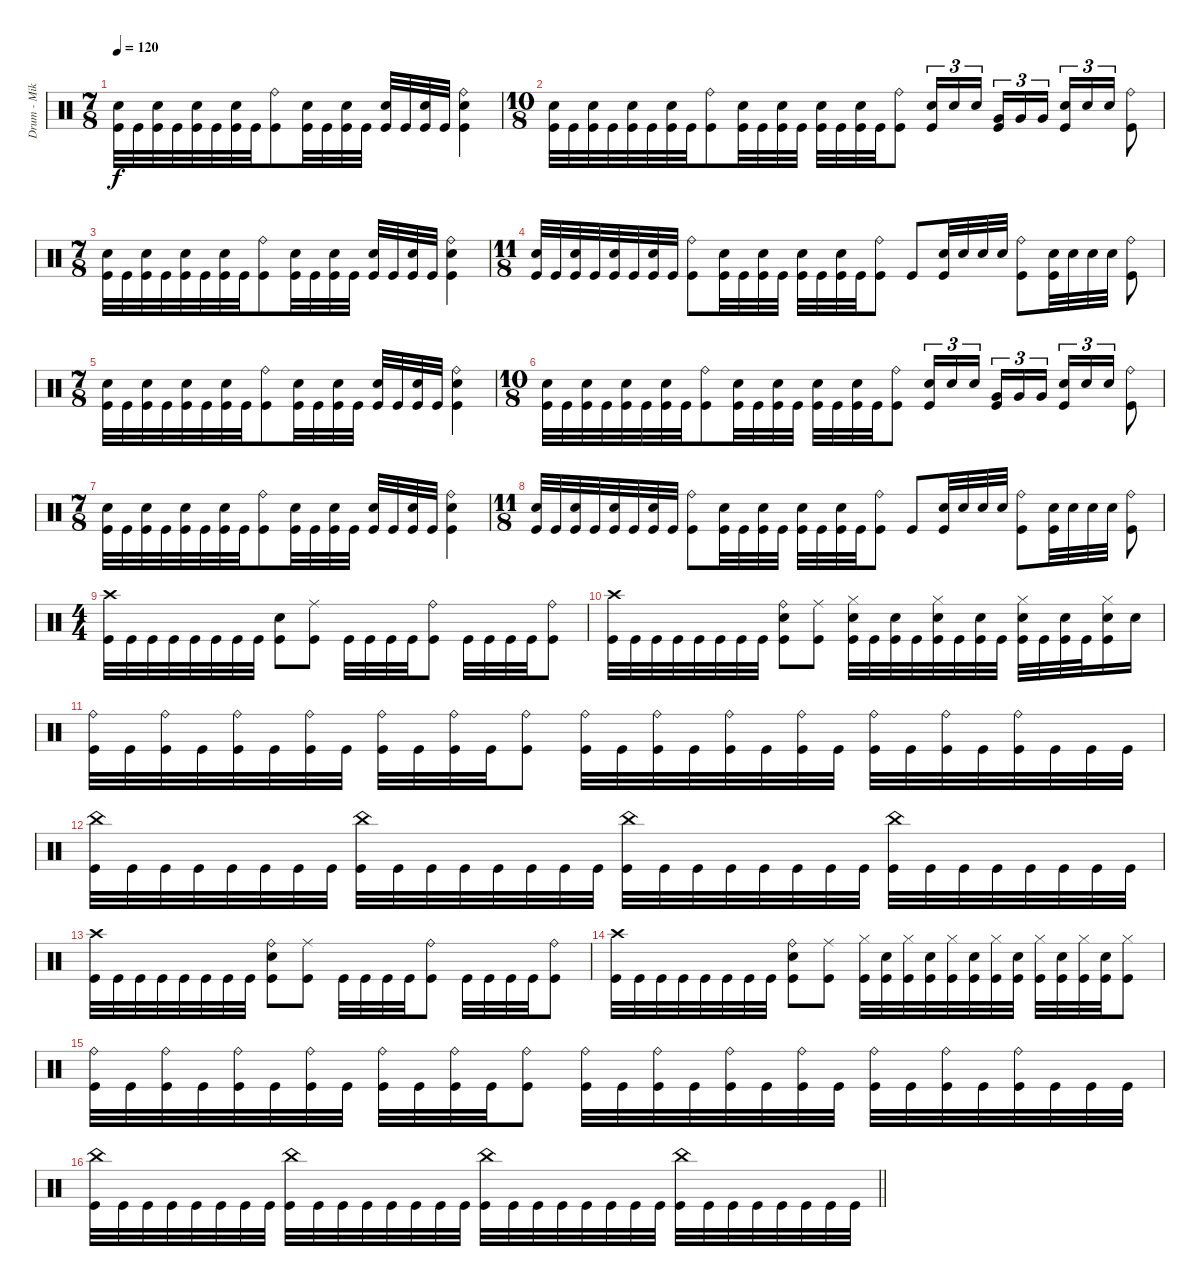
\track ("Drum - Mike Collins" "Drum - Mik") {instrument percussion}
\staff {score}
\articulation defaults
\ts (7 8)
\tempo 120
\clef neutral
\ks c
("Electric Snare (hit)" "Kick (hit)").32{dy f} "Kick (hit)".32 ("Electric Snare (hit)" "Kick (hit)").32 "Kick (hit)".32 ("Electric Snare (hit)" "Kick (hit)").32 "Kick (hit)".32 ("Electric Snare (hit)" "Kick (hit)").32 "Kick (hit)".32 ("Ride (bell)" "Kick (hit)").8 ("Electric Snare (hit)" "Kick (hit)").32 "Kick (hit)".32 ("Electric Snare (hit)" "Kick (hit)").32 "Kick (hit)".32 ("Electric Snare (hit)" "Kick (hit)").32 "Kick (hit)".32 ("Electric Snare (hit)" "Kick (hit)").32 "Kick (hit)".32 ("Ride (bell)" "Electric Snare (hit)" "Kick (hit)").4 |
\ts (10 8)
("Electric Snare (hit)" "Kick (hit)").32 "Kick (hit)".32 ("Electric Snare (hit)" "Kick (hit)").32 "Kick (hit)".32 ("Electric Snare (hit)" "Kick (hit)").32 "Kick (hit)".32 ("Electric Snare (hit)" "Kick (hit)").32 "Kick (hit)".32 ("Ride (bell)" "Kick (hit)").8 ("Electric Snare (hit)" "Kick (hit)").32 "Kick (hit)".32 ("Electric Snare (hit)" "Kick (hit)").32 "Kick (hit)".32 ("Electric Snare (hit)" "Kick (hit)").32 "Kick (hit)".32 ("Electric Snare (hit)" "Kick (hit)").32 "Kick (hit)".32 ("Ride (bell)" "Kick (hit)").8 ("Electric Snare (hit)" "Kick (hit)").16{tu (3 2)} "Electric Snare (hit)".16{tu (3 2)} "Electric Snare (hit)".16{tu (3 2)} ("Very Low Tom (hit)" "Kick (hit)").16{tu (3 2)} "Very Low Tom (hit)".16{tu (3 2)} "Very Low Tom (hit)".16{tu (3 2)} ("Electric Snare (hit)" "Kick (hit)").16{tu (3 2)} "Electric Snare (hit)".16{tu (3 2)} "Electric Snare (hit)".16{tu (3 2)} ("Ride (bell)" "Kick (hit)").8 |
\ts (7 8)
("Electric Snare (hit)" "Kick (hit)").32 "Kick (hit)".32 ("Electric Snare (hit)" "Kick (hit)").32 "Kick (hit)".32 ("Electric Snare (hit)" "Kick (hit)").32 "Kick (hit)".32 ("Electric Snare (hit)" "Kick (hit)").32 "Kick (hit)".32 ("Ride (bell)" "Kick (hit)").8 ("Electric Snare (hit)" "Kick (hit)").32 "Kick (hit)".32 ("Electric Snare (hit)" "Kick (hit)").32 "Kick (hit)".32 ("Electric Snare (hit)" "Kick (hit)").32 "Kick (hit)".32 ("Electric Snare (hit)" "Kick (hit)").32 "Kick (hit)".32 ("Ride (bell)" "Electric Snare (hit)" "Kick (hit)").4 |
\ts (11 8)
("Electric Snare (hit)" "Kick (hit)").32 "Kick (hit)".32 ("Electric Snare (hit)" "Kick (hit)").32 "Kick (hit)".32 ("Electric Snare (hit)" "Kick (hit)").32 "Kick (hit)".32 ("Electric Snare (hit)" "Kick (hit)").32 "Kick (hit)".32 ("Ride (bell)" "Kick (hit)").8 ("Electric Snare (hit)" "Kick (hit)").32 "Kick (hit)".32 ("Electric Snare (hit)" "Kick (hit)").32 "Kick (hit)".32 ("Electric Snare (hit)" "Kick (hit)").32 "Kick (hit)".32 ("Electric Snare (hit)" "Kick (hit)").32 "Kick (hit)".32 ("Ride (bell)" "Kick (hit)").8 "Kick (hit)".8 ("Electric Snare (hit)" "Kick (hit)").32 "Electric Snare (hit)".32 "Electric Snare (hit)".32 "Electric Snare (hit)".32 ("Ride (bell)" "Kick (hit)").8 ("Electric Snare (hit)" "Kick (hit)").32 "Electric Snare (hit)".32 "Electric Snare (hit)".32 "Electric Snare (hit)".32 ("Ride (bell)" "Kick (hit)").8 |
\ts (7 8)
("Electric Snare (hit)" "Kick (hit)").32 "Kick (hit)".32 ("Electric Snare (hit)" "Kick (hit)").32 "Kick (hit)".32 ("Electric Snare (hit)" "Kick (hit)").32 "Kick (hit)".32 ("Electric Snare (hit)" "Kick (hit)").32 "Kick (hit)".32 ("Ride (bell)" "Kick (hit)").8 ("Electric Snare (hit)" "Kick (hit)").32 "Kick (hit)".32 ("Electric Snare (hit)" "Kick (hit)").32 "Kick (hit)".32 ("Electric Snare (hit)" "Kick (hit)").32 "Kick (hit)".32 ("Electric Snare (hit)" "Kick (hit)").32 "Kick (hit)".32 ("Ride (bell)" "Electric Snare (hit)" "Kick (hit)").4 |
\ts (10 8)
("Electric Snare (hit)" "Kick (hit)").32 "Kick (hit)".32 ("Electric Snare (hit)" "Kick (hit)").32 "Kick (hit)".32 ("Electric Snare (hit)" "Kick (hit)").32 "Kick (hit)".32 ("Electric Snare (hit)" "Kick (hit)").32 "Kick (hit)".32 ("Ride (bell)" "Kick (hit)").8 ("Electric Snare (hit)" "Kick (hit)").32 "Kick (hit)".32 ("Electric Snare (hit)" "Kick (hit)").32 "Kick (hit)".32 ("Electric Snare (hit)" "Kick (hit)").32 "Kick (hit)".32 ("Electric Snare (hit)" "Kick (hit)").32 "Kick (hit)".32 ("Ride (bell)" "Kick (hit)").8 ("Electric Snare (hit)" "Kick (hit)").16{tu (3 2)} "Electric Snare (hit)".16{tu (3 2)} "Electric Snare (hit)".16{tu (3 2)} ("Very Low Tom (hit)" "Kick (hit)").16{tu (3 2)} "Very Low Tom (hit)".16{tu (3 2)} "Very Low Tom (hit)".16{tu (3 2)} ("Electric Snare (hit)" "Kick (hit)").16{tu (3 2)} "Electric Snare (hit)".16{tu (3 2)} "Electric Snare (hit)".16{tu (3 2)} ("Ride (bell)" "Kick (hit)").8 |
\ts (7 8)
("Electric Snare (hit)" "Kick (hit)").32 "Kick (hit)".32 ("Electric Snare (hit)" "Kick (hit)").32 "Kick (hit)".32 ("Electric Snare (hit)" "Kick (hit)").32 "Kick (hit)".32 ("Electric Snare (hit)" "Kick (hit)").32 "Kick (hit)".32 ("Ride (bell)" "Kick (hit)").8 ("Electric Snare (hit)" "Kick (hit)").32 "Kick (hit)".32 ("Electric Snare (hit)" "Kick (hit)").32 "Kick (hit)".32 ("Electric Snare (hit)" "Kick (hit)").32 "Kick (hit)".32 ("Electric Snare (hit)" "Kick (hit)").32 "Kick (hit)".32 ("Ride (bell)" "Electric Snare (hit)" "Kick (hit)").4 |
\ts (11 8)
("Electric Snare (hit)" "Kick (hit)").32 "Kick (hit)".32 ("Electric Snare (hit)" "Kick (hit)").32 "Kick (hit)".32 ("Electric Snare (hit)" "Kick (hit)").32 "Kick (hit)".32 ("Electric Snare (hit)" "Kick (hit)").32 "Kick (hit)".32 ("Ride (bell)" "Kick (hit)").8 ("Electric Snare (hit)" "Kick (hit)").32 "Kick (hit)".32 ("Electric Snare (hit)" "Kick (hit)").32 "Kick (hit)".32 ("Electric Snare (hit)" "Kick (hit)").32 "Kick (hit)".32 ("Electric Snare (hit)" "Kick (hit)").32 "Kick (hit)".32 ("Ride (bell)" "Kick (hit)").8 "Kick (hit)".8 ("Electric Snare (hit)" "Kick (hit)").32 "Electric Snare (hit)".32 "Electric Snare (hit)".32 "Electric Snare (hit)".32 ("Ride (bell)" "Kick (hit)").8 ("Electric Snare (hit)" "Kick (hit)").32 "Electric Snare (hit)".32 "Electric Snare (hit)".32 "Electric Snare (hit)".32 ("Ride (bell)" "Kick (hit)").8 |
\ts (4 4)
("Crash high (hit)" "Kick (hit)").32 "Kick (hit)".32 "Kick (hit)".32 "Kick (hit)".32 "Kick (hit)".32 "Kick (hit)".32 "Kick (hit)".32 "Kick (hit)".32 ("Electric Snare (hit)" "Kick (hit)").8 ("Ride (middle)" "Kick (hit)").8 "Kick (hit)".32 "Kick (hit)".32 "Kick (hit)".32 "Kick (hit)".32 ("Ride (bell)" "Kick (hit)").8 "Kick (hit)".32 "Kick (hit)".32 "Kick (hit)".32 "Kick (hit)".32 ("Ride (bell)" "Kick (hit)").8 |
("Crash high (hit)" "Kick (hit)").32 "Kick (hit)".32 "Kick (hit)".32 "Kick (hit)".32 "Kick (hit)".32 "Kick (hit)".32 "Kick (hit)".32 "Kick (hit)".32 ("Ride (bell)" "Electric Snare (hit)" "Kick (hit)").8 ("Ride (middle)" "Kick (hit)").8 ("Hi-Hat (closed)" "Electric Snare (hit)" "Kick (hit)").32 "Kick (hit)".32 ("Electric Snare (hit)" "Kick (hit)").32 "Kick (hit)".32 ("Hi-Hat (closed)" "Electric Snare (hit)" "Kick (hit)").32 "Kick (hit)".32 ("Electric Snare (hit)" "Kick (hit)").32 "Kick (hit)".32 ("Hi-Hat (closed)" "Electric Snare (hit)" "Kick (hit)").32 "Kick (hit)".32 ("Electric Snare (hit)" "Kick (hit)").32 "Kick (hit)".32 ("Hi-Hat (closed)" "Electric Snare (hit)" "Kick (hit)").16 "Electric Snare (hit)".16 |
("Ride (bell)" "Kick (hit)").32 "Kick (hit)".32 ("Ride (bell)" "Kick (hit)").32 "Kick (hit)".32 ("Ride (bell)" "Kick (hit)").32 "Kick (hit)".32 ("Ride (bell)" "Kick (hit)").32 "Kick (hit)".32 ("Ride (bell)" "Kick (hit)").32 "Kick (hit)".32 ("Ride (bell)" "Kick (hit)").32 "Kick (hit)".32 ("Ride (bell)" "Kick (hit)").8 ("Ride (bell)" "Kick (hit)").32 "Kick (hit)".32 ("Ride (bell)" "Kick (hit)").32 "Kick (hit)".32 ("Ride (bell)" "Kick (hit)").32 "Kick (hit)".32 ("Ride (bell)" "Kick (hit)").32 "Kick (hit)".32 ("Ride (bell)" "Kick (hit)").32 "Kick (hit)".32 ("Ride (bell)" "Kick (hit)").32 "Kick (hit)".32 ("Ride (bell)" "Kick (hit)").32 "Kick (hit)".32 "Kick (hit)".32 "Kick (hit)".32 |
("China (hit)" "Kick (hit)").32 "Kick (hit)".32 "Kick (hit)".32 "Kick (hit)".32 "Kick (hit)".32 "Kick (hit)".32 "Kick (hit)".32 "Kick (hit)".32 ("China (hit)" "Kick (hit)").32 "Kick (hit)".32 "Kick (hit)".32 "Kick (hit)".32 "Kick (hit)".32 "Kick (hit)".32 "Kick (hit)".32 "Kick (hit)".32 ("China (hit)" "Kick (hit)").32 "Kick (hit)".32 "Kick (hit)".32 "Kick (hit)".32 "Kick (hit)".32 "Kick (hit)".32 "Kick (hit)".32 "Kick (hit)".32 ("China (hit)" "Kick (hit)").32 "Kick (hit)".32 "Kick (hit)".32 "Kick (hit)".32 "Kick (hit)".32 "Kick (hit)".32 "Kick (hit)".32 "Kick (hit)".32 |
("Crash high (hit)" "Kick (hit)").32 "Kick (hit)".32 "Kick (hit)".32 "Kick (hit)".32 "Kick (hit)".32 "Kick (hit)".32 "Kick (hit)".32 "Kick (hit)".32 ("Ride (bell)" "Electric Snare (hit)" "Kick (hit)").8 ("Ride (middle)" "Kick (hit)").8 "Kick (hit)".32 "Kick (hit)".32 "Kick (hit)".32 "Kick (hit)".32 ("Ride (bell)" "Kick (hit)").8 "Kick (hit)".32 "Kick (hit)".32 "Kick (hit)".32 "Kick (hit)".32 ("Ride (bell)" "Kick (hit)").8 |
("Crash high (hit)" "Kick (hit)").32 "Kick (hit)".32 "Kick (hit)".32 "Kick (hit)".32 "Kick (hit)".32 "Kick (hit)".32 "Kick (hit)".32 "Kick (hit)".32 ("Ride (bell)" "Electric Snare (hit)" "Kick (hit)").8 ("Ride (middle)" "Kick (hit)").8 ("Hi-Hat (closed)" "Kick (hit)").32 ("Electric Snare (hit)" "Kick (hit)").32 ("Hi-Hat (closed)" "Kick (hit)").32 ("Electric Snare (hit)" "Kick (hit)").32 ("Hi-Hat (closed)" "Kick (hit)").32 ("Electric Snare (hit)" "Kick (hit)").32 ("Hi-Hat (closed)" "Kick (hit)").32 ("Electric Snare (hit)" "Kick (hit)").32 ("Hi-Hat (closed)" "Kick (hit)").32 ("Electric Snare (hit)" "Kick (hit)").32 ("Hi-Hat (closed)" "Kick (hit)").32 ("Electric Snare (hit)" "Kick (hit)").32 ("Hi-Hat (closed)" "Kick (hit)").8 |
("Ride (bell)" "Kick (hit)").32 "Kick (hit)".32 ("Ride (bell)" "Kick (hit)").32 "Kick (hit)".32 ("Ride (bell)" "Kick (hit)").32 "Kick (hit)".32 ("Ride (bell)" "Kick (hit)").32 "Kick (hit)".32 ("Ride (bell)" "Kick (hit)").32 "Kick (hit)".32 ("Ride (bell)" "Kick (hit)").32 "Kick (hit)".32 ("Ride (bell)" "Kick (hit)").8 ("Ride (bell)" "Kick (hit)").32 "Kick (hit)".32 ("Ride (bell)" "Kick (hit)").32 "Kick (hit)".32 ("Ride (bell)" "Kick (hit)").32 "Kick (hit)".32 ("Ride (bell)" "Kick (hit)").32 "Kick (hit)".32 ("Ride (bell)" "Kick (hit)").32 "Kick (hit)".32 ("Ride (bell)" "Kick (hit)").32 "Kick (hit)".32 ("Ride (bell)" "Kick (hit)").32 "Kick (hit)".32 "Kick (hit)".32 "Kick (hit)".32 |
\barLineRight lightlight
("China (hit)" "Kick (hit)").32 "Kick (hit)".32 "Kick (hit)".32 "Kick (hit)".32 "Kick (hit)".32 "Kick (hit)".32 "Kick (hit)".32 "Kick (hit)".32 ("China (hit)" "Kick (hit)").32 "Kick (hit)".32 "Kick (hit)".32 "Kick (hit)".32 "Kick (hit)".32 "Kick (hit)".32 "Kick (hit)".32 "Kick (hit)".32 ("China (hit)" "Kick (hit)").32 "Kick (hit)".32 "Kick (hit)".32 "Kick (hit)".32 "Kick (hit)".32 "Kick (hit)".32 "Kick (hit)".32 "Kick (hit)".32 ("China (hit)" "Kick (hit)").32 "Kick (hit)".32 "Kick (hit)".32 "Kick (hit)".32 "Kick (hit)".32 "Kick (hit)".32 "Kick (hit)".32 "Kick (hit)".32
